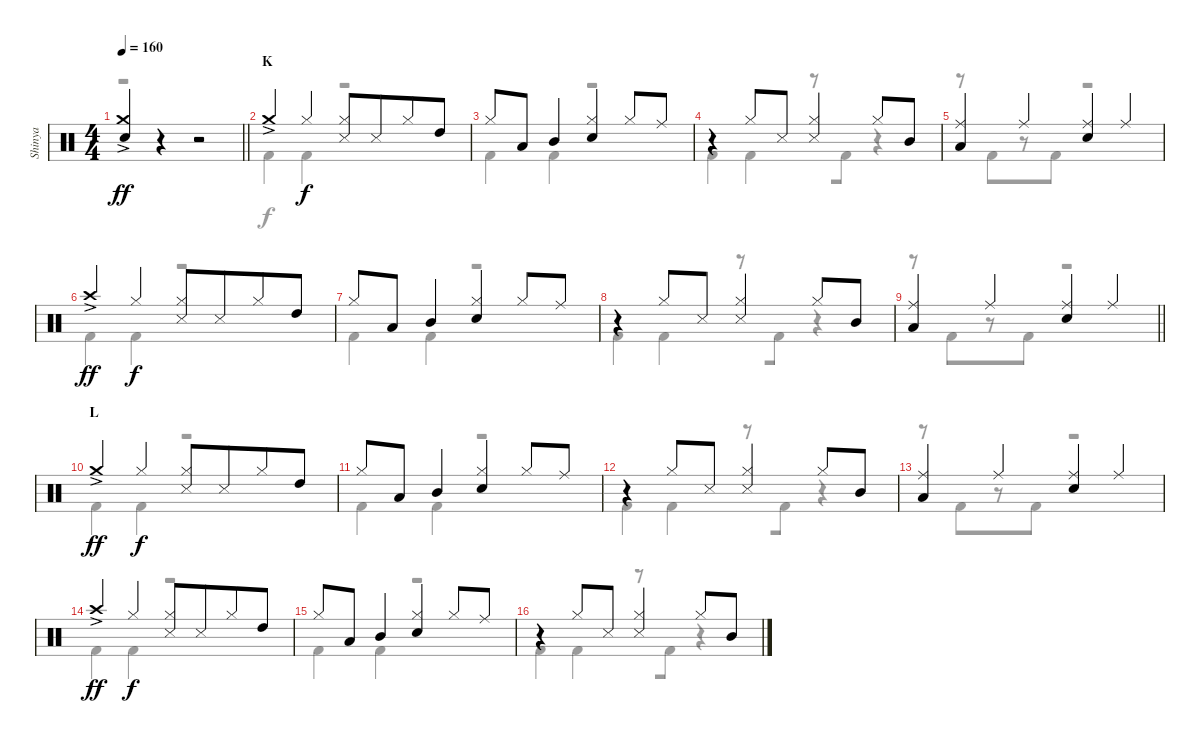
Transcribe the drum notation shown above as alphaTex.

\track ("Shinya" "Shinya") {instrument percussion}
\staff {score}
\articulation defaults
\voice
\ts (4 4)
\tempo 160
\clef neutral
\barLineRight lightlight
\ks c
("Crash medium (hit)"{ac} "Electric Snare (hit)").4{dy ff beam merge} r.4{beam merge} r.2 |
\section ("" "K")
"Crash medium (hit)"{ac}.4{beam merge} "Hi-Hat (closed)".4{dy f beam merge} ("Hi-Hat (closed)" "Snare (side stick) 3").8 "Snare (side stick) 3".8{beam merge} "Hi-Hat (closed)".8 "High Tom (hit)".8 |
"Hi-Hat (closed)".8{beam merge} "Low Tom (hit)".8{beam merge} "Mid Tom (hit)".4 ("Hi-Hat (closed)" "Electric Snare (hit)").4{beam merge} "Hi-Hat (closed)".8 "Ride (middle)".8 |
r.4{beam merge} "Hi-Hat (closed)".8{beam merge} "Snare (side stick) 3".8{beam merge} ("Hi-Hat (closed)" "Snare (side stick) 3").4{beam merge} "Hi-Hat (closed)".8 "Mid Tom (hit)".8 |
("Ride (middle)" "Low Tom (hit)").4{beam merge} "Ride (middle)".4{beam merge} ("Ride (middle)" "Electric Snare (hit)").4{beam merge} "Ride (middle)".4 |
"Crash high (hit)"{ac}.4{dy ff beam merge} "Hi-Hat (closed)".4{dy f beam merge} ("Hi-Hat (closed)" "Snare (side stick) 3").8 "Snare (side stick) 3".8{beam merge} "Hi-Hat (closed)".8 "High Tom (hit)".8 |
"Hi-Hat (closed)".8{beam merge} "Low Tom (hit)".8{beam merge} "Mid Tom (hit)".4 ("Hi-Hat (closed)" "Electric Snare (hit)").4{beam merge} "Hi-Hat (closed)".8 "Ride (middle)".8 |
r.4{beam merge} "Hi-Hat (closed)".8{beam merge} "Snare (side stick) 3".8{beam merge} ("Hi-Hat (closed)" "Snare (side stick) 3").4{beam merge} "Hi-Hat (closed)".8 "Mid Tom (hit)".8 |
\barLineRight lightlight
("Ride (middle)" "Low Tom (hit)").4{beam merge} "Ride (middle)".4{beam merge} ("Ride (middle)" "Electric Snare (hit)").4{beam merge} "Ride (middle)".4 |
\section ("" "L")
"Crash medium (hit)"{ac}.4{dy ff beam merge} "Hi-Hat (closed)".4{dy f beam merge} ("Hi-Hat (closed)" "Snare (side stick) 3").8 "Snare (side stick) 3".8{beam merge} "Hi-Hat (closed)".8 "High Tom (hit)".8 |
"Hi-Hat (closed)".8{beam merge} "Low Tom (hit)".8{beam merge} "Mid Tom (hit)".4 ("Hi-Hat (closed)" "Electric Snare (hit)").4{beam merge} "Hi-Hat (closed)".8 "Ride (middle)".8 |
r.4{beam merge} "Hi-Hat (closed)".8{beam merge} "Snare (side stick) 3".8{beam merge} ("Hi-Hat (closed)" "Snare (side stick) 3").4{beam merge} "Hi-Hat (closed)".8 "Mid Tom (hit)".8 |
("Ride (middle)" "Low Tom (hit)").4{beam merge} "Ride (middle)".4{beam merge} ("Ride (middle)" "Electric Snare (hit)").4{beam merge} "Ride (middle)".4 |
"Crash high (hit)"{ac}.4{dy ff beam merge} "Hi-Hat (closed)".4{dy f beam merge} ("Hi-Hat (closed)" "Snare (side stick) 3").8 "Snare (side stick) 3".8{beam merge} "Hi-Hat (closed)".8 "High Tom (hit)".8 |
"Hi-Hat (closed)".8{beam merge} "Low Tom (hit)".8{beam merge} "Mid Tom (hit)".4 ("Hi-Hat (closed)" "Electric Snare (hit)").4{beam merge} "Hi-Hat (closed)".8 "Ride (middle)".8 |
r.4{beam merge} "Hi-Hat (closed)".8{beam merge} "Snare (side stick) 3".8{beam merge} ("Hi-Hat (closed)" "Snare (side stick) 3").4{beam merge} "Hi-Hat (closed)".8 "Mid Tom (hit)".8
\voice
\clef neutral
\ottava regular
\simile none
\barLineRight lightlight
\ks c
r.1{dy f} |
"Kick (hit) 2".4{beam merge} "Kick (hit) 2".4{beam merge} r.2 |
"Kick (hit) 2".4{beam merge} "Kick (hit) 2".4{beam merge} r.2 |
"Kick (hit) 2".4{beam merge} "Kick (hit) 2".4{beam merge} r.8{beam merge} "Kick (hit) 2".8{beam merge} r.4 |
r.8{beam merge} "Kick (hit) 2".8{beam merge} r.8{beam merge} "Kick (hit) 2".8{beam merge} r.2 |
"Kick (hit) 2".4{beam merge} "Kick (hit) 2".4{beam merge} r.2 |
"Kick (hit) 2".4{beam merge} "Kick (hit) 2".4{beam merge} r.2 |
"Kick (hit) 2".4{beam merge} "Kick (hit) 2".4{beam merge} r.8{beam merge} "Kick (hit) 2".8{beam merge} r.4 |
\barLineRight lightlight
r.8{beam merge} "Kick (hit) 2".8{beam merge} r.8{beam merge} "Kick (hit) 2".8{beam merge} r.2 |
"Kick (hit) 2".4{beam merge} "Kick (hit) 2".4{beam merge} r.2 |
"Kick (hit) 2".4{beam merge} "Kick (hit) 2".4{beam merge} r.2 |
"Kick (hit) 2".4{beam merge} "Kick (hit) 2".4{beam merge} r.8{beam merge} "Kick (hit) 2".8{beam merge} r.4 |
r.8{beam merge} "Kick (hit) 2".8{beam merge} r.8{beam merge} "Kick (hit) 2".8{beam merge} r.2 |
"Kick (hit) 2".4{beam merge} "Kick (hit) 2".4{beam merge} r.2 |
"Kick (hit) 2".4{beam merge} "Kick (hit) 2".4{beam merge} r.2 |
"Kick (hit) 2".4{beam merge} "Kick (hit) 2".4{beam merge} r.8{beam merge} "Kick (hit) 2".8{beam merge} r.4
